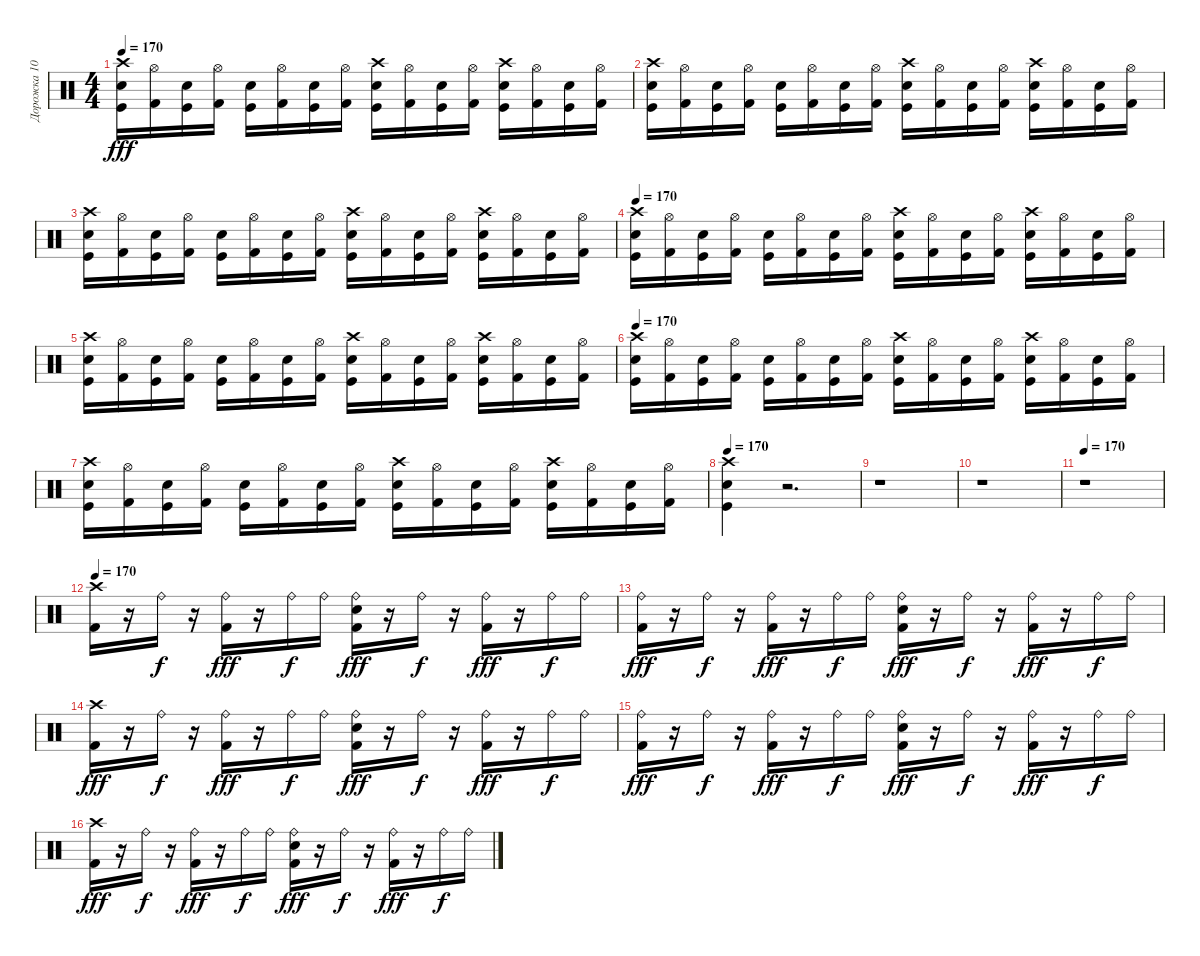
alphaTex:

\track ("Дорожка 10" "Дорожка 10") {instrument percussion}
\staff {score}
\articulation defaults
\ts (4 4)
\tempo 170
\clef neutral
\ks c
("Electric Snare (hit)" "Kick (hit)" "Crash high (hit)").16{dy fff} ("Hi-Hat (open)" "Kick (hit) 2").16 ("Kick (hit)" "Electric Snare (hit)").16 ("Hi-Hat (open)" "Kick (hit) 2").16 ("Kick (hit)" "Electric Snare (hit)").16 ("Hi-Hat (open)" "Kick (hit) 2").16 ("Kick (hit)" "Electric Snare (hit)").16 ("Hi-Hat (open)" "Kick (hit) 2").16 ("Kick (hit)" "Electric Snare (hit)" "Crash high (hit)").16 ("Hi-Hat (open)" "Kick (hit) 2").16 ("Kick (hit)" "Electric Snare (hit)").16 ("Hi-Hat (open)" "Kick (hit) 2").16 ("Kick (hit)" "Electric Snare (hit)" "Crash high (hit)").16 ("Kick (hit) 2" "Hi-Hat (open)").16 ("Electric Snare (hit)" "Kick (hit)").16 ("Kick (hit) 2" "Hi-Hat (open)").16 |
("Electric Snare (hit)" "Crash high (hit)" "Kick (hit)").16 ("Kick (hit) 2" "Hi-Hat (open)").16 ("Electric Snare (hit)" "Kick (hit)").16 ("Kick (hit) 2" "Hi-Hat (open)").16 ("Electric Snare (hit)" "Kick (hit)").16 ("Kick (hit) 2" "Hi-Hat (open)").16 ("Electric Snare (hit)" "Kick (hit)").16 ("Kick (hit) 2" "Hi-Hat (open)").16 ("Crash high (hit)" "Kick (hit)" "Electric Snare (hit)").16 ("Kick (hit) 2" "Hi-Hat (open)").16 ("Kick (hit)" "Electric Snare (hit)").16 ("Hi-Hat (open)" "Kick (hit) 2").16 ("Electric Snare (hit)" "Crash high (hit)" "Kick (hit)").16 ("Hi-Hat (open)" "Kick (hit) 2").16 ("Electric Snare (hit)" "Kick (hit)").16 ("Hi-Hat (open)" "Kick (hit) 2").16 |
("Electric Snare (hit)" "Crash high (hit)" "Kick (hit)").16 ("Kick (hit) 2" "Hi-Hat (open)").16 ("Kick (hit)" "Electric Snare (hit)").16 ("Hi-Hat (open)" "Kick (hit) 2").16 ("Kick (hit)" "Electric Snare (hit)").16 ("Kick (hit) 2" "Hi-Hat (open)").16 ("Kick (hit)" "Electric Snare (hit)").16 ("Hi-Hat (open)" "Kick (hit) 2").16 ("Kick (hit)" "Electric Snare (hit)" "Crash high (hit)").16 ("Hi-Hat (open)" "Kick (hit) 2").16 ("Kick (hit)" "Electric Snare (hit)").16 ("Kick (hit) 2" "Hi-Hat (open)").16 ("Kick (hit)" "Crash high (hit)" "Electric Snare (hit)").16 ("Hi-Hat (open)" "Kick (hit) 2").16 ("Electric Snare (hit)" "Kick (hit)").16 ("Hi-Hat (open)" "Kick (hit) 2").16 |
\tempo 170
("Crash high (hit)" "Kick (hit)" "Electric Snare (hit)").16 ("Hi-Hat (open)" "Kick (hit) 2").16 ("Kick (hit)" "Electric Snare (hit)").16 ("Kick (hit) 2" "Hi-Hat (open)").16 ("Kick (hit)" "Electric Snare (hit)").16 ("Hi-Hat (open)" "Kick (hit) 2").16 ("Electric Snare (hit)" "Kick (hit)").16 ("Kick (hit) 2" "Hi-Hat (open)").16 ("Electric Snare (hit)" "Kick (hit)" "Crash high (hit)").16 ("Hi-Hat (open)" "Kick (hit) 2").16 ("Kick (hit)" "Electric Snare (hit)").16 ("Hi-Hat (open)" "Kick (hit) 2").16 ("Crash high (hit)" "Kick (hit)" "Electric Snare (hit)").16 ("Hi-Hat (open)" "Kick (hit) 2").16 ("Electric Snare (hit)" "Kick (hit)").16 ("Hi-Hat (open)" "Kick (hit) 2").16 |
("Crash high (hit)" "Kick (hit)" "Electric Snare (hit)").16 ("Hi-Hat (open)" "Kick (hit) 2").16 ("Kick (hit)" "Electric Snare (hit)").16 ("Hi-Hat (open)" "Kick (hit) 2").16 ("Electric Snare (hit)" "Kick (hit)").16 ("Hi-Hat (open)" "Kick (hit) 2").16 ("Kick (hit)" "Electric Snare (hit)").16 ("Kick (hit) 2" "Hi-Hat (open)").16 ("Kick (hit)" "Electric Snare (hit)" "Crash high (hit)").16 ("Kick (hit) 2" "Hi-Hat (open)").16 ("Kick (hit)" "Electric Snare (hit)").16 ("Hi-Hat (open)" "Kick (hit) 2").16 ("Kick (hit)" "Crash high (hit)" "Electric Snare (hit)").16 ("Kick (hit) 2" "Hi-Hat (open)").16 ("Kick (hit)" "Electric Snare (hit)").16 ("Kick (hit) 2" "Hi-Hat (open)").16 |
\tempo 170
("Crash high (hit)" "Electric Snare (hit)" "Kick (hit)").16 ("Hi-Hat (open)" "Kick (hit) 2").16 ("Kick (hit)" "Electric Snare (hit)").16 ("Kick (hit) 2" "Hi-Hat (open)").16 ("Electric Snare (hit)" "Kick (hit)").16 ("Hi-Hat (open)" "Kick (hit) 2").16 ("Kick (hit)" "Electric Snare (hit)").16 ("Hi-Hat (open)" "Kick (hit) 2").16 ("Electric Snare (hit)" "Crash high (hit)" "Kick (hit)").16 ("Hi-Hat (open)" "Kick (hit) 2").16 ("Electric Snare (hit)" "Kick (hit)").16 ("Kick (hit) 2" "Hi-Hat (open)").16 ("Crash high (hit)" "Electric Snare (hit)" "Kick (hit)").16 ("Hi-Hat (open)" "Kick (hit) 2").16 ("Kick (hit)" "Electric Snare (hit)").16 ("Hi-Hat (open)" "Kick (hit) 2").16 |
("Electric Snare (hit)" "Crash high (hit)" "Kick (hit)").16 ("Kick (hit) 2" "Hi-Hat (open)").16 ("Kick (hit)" "Electric Snare (hit)").16 ("Hi-Hat (open)" "Kick (hit) 2").16 ("Kick (hit)" "Electric Snare (hit)").16 ("Hi-Hat (open)" "Kick (hit) 2").16 ("Kick (hit)" "Electric Snare (hit)").16 ("Kick (hit) 2" "Hi-Hat (open)").16 ("Crash high (hit)" "Kick (hit)" "Electric Snare (hit)").16 ("Kick (hit) 2" "Hi-Hat (open)").16 ("Kick (hit)" "Electric Snare (hit)").16 ("Hi-Hat (open)" "Kick (hit) 2").16 ("Electric Snare (hit)" "Kick (hit)" "Crash high (hit)").16 ("Kick (hit) 2" "Hi-Hat (open)").16 ("Kick (hit)" "Electric Snare (hit)").16 ("Kick (hit) 2" "Hi-Hat (open)").16 |
\tempo 170
("Electric Snare (hit)" "Kick (hit)" "Crash high (hit)").4 r.2{d} |
r.1 |
r.1 |
\tempo 170
r.1 |
\tempo 170
("Crash high (hit)" "Kick (hit) 2").16 r.16 "Ride (bell)".16{dy f} r.16 ("Kick (hit) 2" "Ride (bell)").16{dy fff} r.16 "Ride (bell)".16{dy f} "Ride (bell)".16 ("Kick (hit) 2" "Electric Snare (hit)" "Ride (bell)").16{dy fff} r.16 "Ride (bell)".16{dy f} r.16 ("Ride (bell)" "Kick (hit) 2").16{dy fff} r.16 "Ride (bell)".16{dy f} "Ride (bell)".16 |
("Kick (hit) 2" "Ride (bell)").16{dy fff} r.16 "Ride (bell)".16{dy f} r.16 ("Ride (bell)" "Kick (hit) 2").16{dy fff} r.16 "Ride (bell)".16{dy f} "Ride (bell)".16 ("Electric Snare (hit)" "Ride (bell)" "Kick (hit) 2").16{dy fff} r.16 "Ride (bell)".16{dy f} r.16 ("Ride (bell)" "Kick (hit) 2").16{dy fff} r.16 "Ride (bell)".16{dy f} "Ride (bell)".16 |
("Kick (hit) 2" "Crash high (hit)").16{dy fff} r.16 "Ride (bell)".16{dy f} r.16 ("Kick (hit) 2" "Ride (bell)").16{dy fff} r.16 "Ride (bell)".16{dy f} "Ride (bell)".16 ("Kick (hit) 2" "Ride (bell)" "Electric Snare (hit)").16{dy fff} r.16 "Ride (bell)".16{dy f} r.16 ("Kick (hit) 2" "Ride (bell)").16{dy fff} r.16 "Ride (bell)".16{dy f} "Ride (bell)".16 |
("Kick (hit) 2" "Ride (bell)").16{dy fff} r.16 "Ride (bell)".16{dy f} r.16 ("Kick (hit) 2" "Ride (bell)").16{dy fff} r.16 "Ride (bell)".16{dy f} "Ride (bell)".16 ("Electric Snare (hit)" "Kick (hit) 2" "Ride (bell)").16{dy fff} r.16 "Ride (bell)".16{dy f} r.16 ("Ride (bell)" "Kick (hit) 2").16{dy fff} r.16 "Ride (bell)".16{dy f} "Ride (bell)".16 |
("Kick (hit) 2" "Crash high (hit)").16{dy fff} r.16 "Ride (bell)".16{dy f} r.16 ("Kick (hit) 2" "Ride (bell)").16{dy fff} r.16 "Ride (bell)".16{dy f} "Ride (bell)".16 ("Electric Snare (hit)" "Ride (bell)" "Kick (hit) 2").16{dy fff} r.16 "Ride (bell)".16{dy f} r.16 ("Ride (bell)" "Kick (hit) 2").16{dy fff} r.16 "Ride (bell)".16{dy f} "Ride (bell)".16
